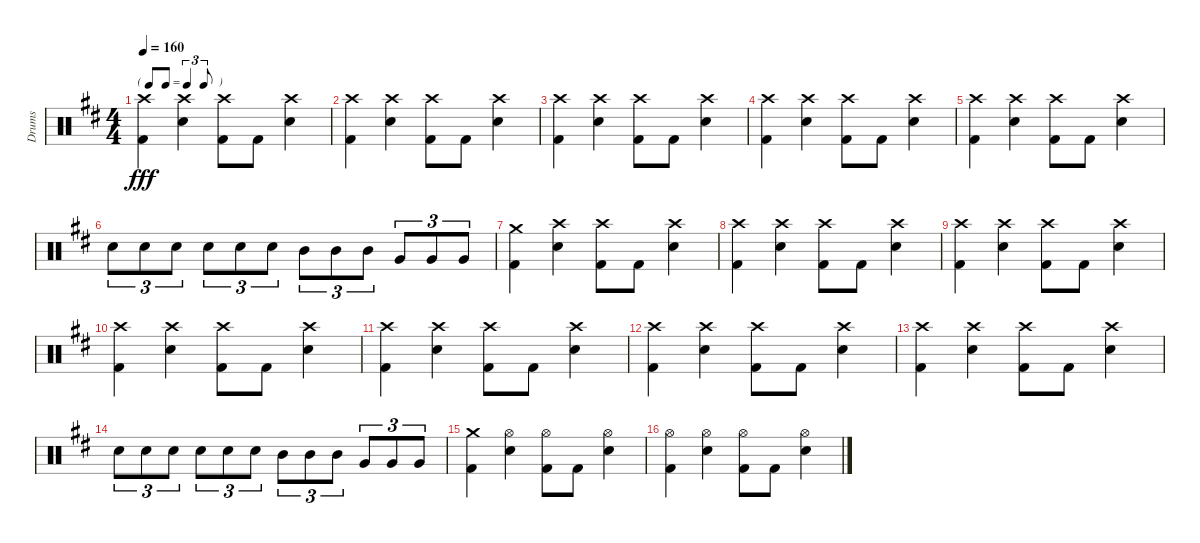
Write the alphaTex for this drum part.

\track ("Drums" "Drums") {instrument percussion}
\staff {score}
\articulation defaults
\ts (4 4)
\tf triplet8th
\tempo 160
\clef neutral
\ks d
("Crash high (hit)" "Kick (hit) 2").4{dy fff} ("Crash high (hit)" "Electric Snare (hit)").4 ("Crash high (hit)" "Kick (hit) 2").8 "Kick (hit) 2".8 ("Crash high (hit)" "Electric Snare (hit)").4 |
("Crash high (hit)" "Kick (hit) 2").4 ("Crash high (hit)" "Electric Snare (hit)").4 ("Crash high (hit)" "Kick (hit) 2").8 "Kick (hit) 2".8 ("Crash high (hit)" "Electric Snare (hit)").4 |
("Crash high (hit)" "Kick (hit) 2").4 ("Crash high (hit)" "Electric Snare (hit)").4 ("Crash high (hit)" "Kick (hit) 2").8 "Kick (hit) 2".8 ("Crash high (hit)" "Electric Snare (hit)").4 |
("Crash high (hit)" "Kick (hit) 2").4 ("Crash high (hit)" "Electric Snare (hit)").4 ("Crash high (hit)" "Kick (hit) 2").8 "Kick (hit) 2".8 ("Crash high (hit)" "Electric Snare (hit)").4 |
("Crash high (hit)" "Kick (hit) 2").4 ("Crash high (hit)" "Electric Snare (hit)").4 ("Crash high (hit)" "Kick (hit) 2").8 "Kick (hit) 2".8 ("Crash high (hit)" "Electric Snare (hit)").4 |
"Electric Snare (hit)".8{tu (3 2)} "Electric Snare (hit)".8{tu (3 2)} "Electric Snare (hit)".8{tu (3 2)} "Electric Snare (hit)".8{tu (3 2)} "Electric Snare (hit)".8{tu (3 2)} "Electric Snare (hit)".8{tu (3 2)} "Mid Tom (hit)".8{tu (3 2)} "Mid Tom (hit)".8{tu (3 2)} "Mid Tom (hit)".8{tu (3 2)} "Very Low Tom (hit)".8{tu (3 2)} "Very Low Tom (hit)".8{tu (3 2)} "Very Low Tom (hit)".8{tu (3 2)} |
("Crash medium (hit)" "Kick (hit) 2").4 ("Crash high (hit)" "Electric Snare (hit)").4 ("Crash high (hit)" "Kick (hit) 2").8 "Kick (hit) 2".8 ("Crash high (hit)" "Electric Snare (hit)").4 |
("Crash high (hit)" "Kick (hit) 2").4 ("Crash high (hit)" "Electric Snare (hit)").4 ("Crash high (hit)" "Kick (hit) 2").8 "Kick (hit) 2".8 ("Crash high (hit)" "Electric Snare (hit)").4 |
("Crash high (hit)" "Kick (hit) 2").4 ("Crash high (hit)" "Electric Snare (hit)").4 ("Crash high (hit)" "Kick (hit) 2").8 "Kick (hit) 2".8 ("Crash high (hit)" "Electric Snare (hit)").4 |
("Crash high (hit)" "Kick (hit) 2").4 ("Crash high (hit)" "Electric Snare (hit)").4 ("Crash high (hit)" "Kick (hit) 2").8 "Kick (hit) 2".8 ("Crash high (hit)" "Electric Snare (hit)").4 |
("Crash high (hit)" "Kick (hit) 2").4 ("Crash high (hit)" "Electric Snare (hit)").4 ("Crash high (hit)" "Kick (hit) 2").8 "Kick (hit) 2".8 ("Crash high (hit)" "Electric Snare (hit)").4 |
("Crash high (hit)" "Kick (hit) 2").4 ("Crash high (hit)" "Electric Snare (hit)").4 ("Crash high (hit)" "Kick (hit) 2").8 "Kick (hit) 2".8 ("Crash high (hit)" "Electric Snare (hit)").4 |
("Crash high (hit)" "Kick (hit) 2").4 ("Crash high (hit)" "Electric Snare (hit)").4 ("Crash high (hit)" "Kick (hit) 2").8 "Kick (hit) 2".8 ("Crash high (hit)" "Electric Snare (hit)").4 |
"Electric Snare (hit)".8{tu (3 2)} "Electric Snare (hit)".8{tu (3 2)} "Electric Snare (hit)".8{tu (3 2)} "Electric Snare (hit)".8{tu (3 2)} "Electric Snare (hit)".8{tu (3 2)} "Electric Snare (hit)".8{tu (3 2)} "Mid Tom (hit)".8{tu (3 2)} "Mid Tom (hit)".8{tu (3 2)} "Mid Tom (hit)".8{tu (3 2)} "Very Low Tom (hit)".8{tu (3 2)} "Very Low Tom (hit)".8{tu (3 2)} "Very Low Tom (hit)".8{tu (3 2)} |
("Crash medium (hit)" "Kick (hit) 2").4 ("Hi-Hat (open)" "Electric Snare (hit)").4 ("Hi-Hat (open)" "Kick (hit) 2").8 "Kick (hit) 2".8 ("Hi-Hat (open)" "Electric Snare (hit)").4 |
("Hi-Hat (open)" "Kick (hit) 2").4 ("Hi-Hat (open)" "Electric Snare (hit)").4 ("Hi-Hat (open)" "Kick (hit) 2").8 "Kick (hit) 2".8 ("Hi-Hat (open)" "Electric Snare (hit)").4
